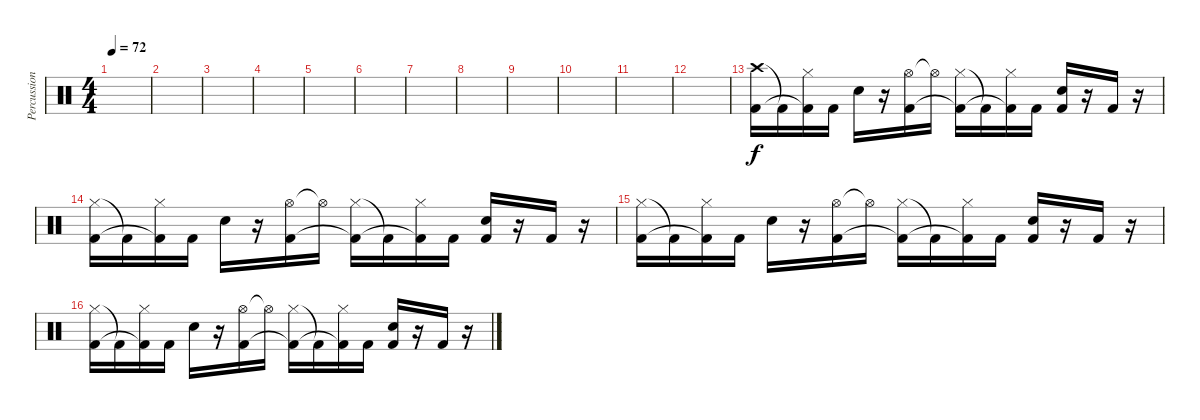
\track ("Percussion" "Percussion") {instrument percussion}
\staff {score}
\articulation defaults
\ts (4 4)
\tempo 72
\clef neutral
\ks c
|
|
|
|
|
|
|
|
|
|
|
|
("Crash high (hit)" "Kick (hit) 2").16 "Kick (hit) 2"{t}.16 ("Hi-Hat (closed)" "Kick (hit) 2"{t}).16 "Kick (hit) 2".16 "Snare (hit) 2".16 r.16 ("Hi-Hat (open)" "Kick (hit) 2").16 "Hi-Hat (open)"{t}.16 ("Hi-Hat (closed)" "Kick (hit) 2"{t}).16 "Kick (hit) 2"{t}.16 ("Hi-Hat (closed)" "Kick (hit) 2"{t}).16 "Kick (hit) 2".16 ("Snare (hit) 2" "Kick (hit) 2").16 r.16 "Kick (hit) 2".16 r.16 |
("Hi-Hat (closed)" "Kick (hit) 2").16 "Kick (hit) 2"{t}.16 ("Hi-Hat (closed)" "Kick (hit) 2"{t}).16 "Kick (hit) 2".16 "Snare (hit) 2".16 r.16 ("Hi-Hat (open)" "Kick (hit) 2").16 "Hi-Hat (open)"{t}.16 ("Hi-Hat (closed)" "Kick (hit) 2"{t}).16 "Kick (hit) 2"{t}.16 ("Hi-Hat (closed)" "Kick (hit) 2"{t}).16 "Kick (hit) 2".16 ("Snare (hit) 2" "Kick (hit) 2").16 r.16 "Kick (hit) 2".16 r.16 |
("Hi-Hat (closed)" "Kick (hit) 2").16 "Kick (hit) 2"{t}.16 ("Hi-Hat (closed)" "Kick (hit) 2"{t}).16 "Kick (hit) 2".16 "Snare (hit) 2".16 r.16 ("Hi-Hat (open)" "Kick (hit) 2").16 "Hi-Hat (open)"{t}.16 ("Hi-Hat (closed)" "Kick (hit) 2"{t}).16 "Kick (hit) 2"{t}.16 ("Hi-Hat (closed)" "Kick (hit) 2"{t}).16 "Kick (hit) 2".16 ("Snare (hit) 2" "Kick (hit) 2").16 r.16 "Kick (hit) 2".16 r.16 |
("Hi-Hat (closed)" "Kick (hit) 2").16 "Kick (hit) 2"{t}.16 ("Hi-Hat (closed)" "Kick (hit) 2"{t}).16 "Kick (hit) 2".16 "Snare (hit) 2".16 r.16 ("Hi-Hat (open)" "Kick (hit) 2").16 "Hi-Hat (open)"{t}.16 ("Hi-Hat (closed)" "Kick (hit) 2"{t}).16 "Kick (hit) 2"{t}.16 ("Hi-Hat (closed)" "Kick (hit) 2"{t}).16 "Kick (hit) 2".16 ("Snare (hit) 2" "Kick (hit) 2").16 r.16 "Kick (hit) 2".16 r.16
